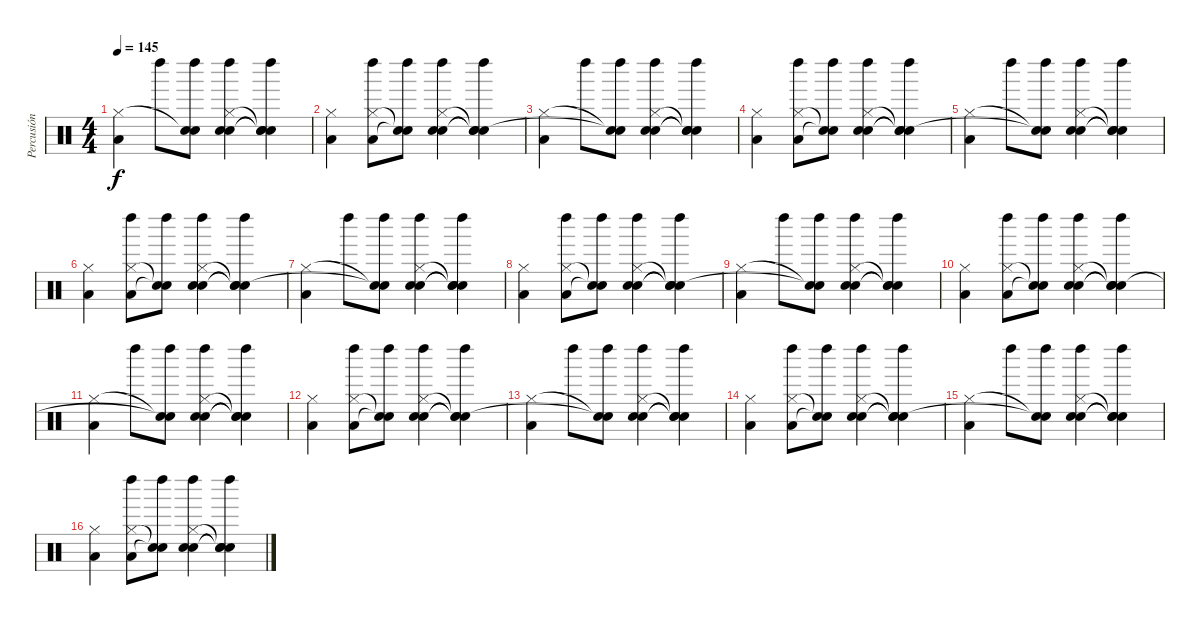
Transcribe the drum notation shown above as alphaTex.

\track ("Percusión" "Percusión") {instrument percussion}
\staff {score}
\articulation defaults
\ts (4 4)
\tempo 145
\clef neutral
\ks c
("Low Floor Tom (hit)" "Hi-Hat (closed)").4{dy f} "Left Maraca (hit)".8 ("Left Maraca (hit)" "Snare (hit)"{t} "Snare (hit)"{t}).8 ("Left Maraca (hit)" "Electric Snare (hit)" "Hi-Hat (closed)" "Snare (hit) 2").4 ("Left Maraca (hit)" "Snare (hit)"{t} "Snare (hit)"{t} "Snare (hit)"{t}).4 |
("Low Floor Tom (hit)" "Hi-Hat (closed)").4 ("Left Maraca (hit)" "Low Floor Tom (hit)" "Hi-Hat (closed)").8 ("Left Maraca (hit)" "Snare (hit)"{t} "Snare (hit)"{t}).8 ("Left Maraca (hit)" "Electric Snare (hit)" "Hi-Hat (closed)" "Snare (hit) 2").4 ("Left Maraca (hit)" "Snare (hit)"{t} "Snare (hit)"{t} "Snare (hit)"{t}).4 |
("Low Floor Tom (hit)" "Hi-Hat (closed)").4 "Left Maraca (hit)".8 ("Left Maraca (hit)" "Snare (hit)"{t} "Snare (hit)"{t}).8 ("Left Maraca (hit)" "Electric Snare (hit)" "Hi-Hat (closed)" "Snare (hit) 2").4 ("Left Maraca (hit)" "Snare (hit)"{t} "Snare (hit)"{t} "Snare (hit)"{t}).4 |
("Low Floor Tom (hit)" "Hi-Hat (closed)").4 ("Left Maraca (hit)" "Low Floor Tom (hit)" "Hi-Hat (closed)").8 ("Left Maraca (hit)" "Snare (hit)"{t} "Snare (hit)"{t}).8 ("Left Maraca (hit)" "Electric Snare (hit)" "Hi-Hat (closed)" "Snare (hit) 2").4 ("Left Maraca (hit)" "Snare (hit)"{t} "Snare (hit)"{t} "Snare (hit)"{t}).4 |
("Low Floor Tom (hit)" "Hi-Hat (closed)").4 "Left Maraca (hit)".8 ("Left Maraca (hit)" "Snare (hit)"{t} "Snare (hit)"{t}).8 ("Left Maraca (hit)" "Electric Snare (hit)" "Hi-Hat (closed)" "Snare (hit) 2").4 ("Left Maraca (hit)" "Snare (hit)"{t} "Snare (hit)"{t} "Snare (hit)"{t}).4 |
("Low Floor Tom (hit)" "Hi-Hat (closed)").4 ("Left Maraca (hit)" "Low Floor Tom (hit)" "Hi-Hat (closed)").8 ("Left Maraca (hit)" "Snare (hit)"{t} "Snare (hit)"{t}).8 ("Left Maraca (hit)" "Electric Snare (hit)" "Hi-Hat (closed)" "Snare (hit) 2").4 ("Left Maraca (hit)" "Snare (hit)"{t} "Snare (hit)"{t} "Snare (hit)"{t}).4 |
("Low Floor Tom (hit)" "Hi-Hat (closed)").4 "Left Maraca (hit)".8 ("Left Maraca (hit)" "Snare (hit)"{t} "Snare (hit)"{t}).8 ("Left Maraca (hit)" "Electric Snare (hit)" "Hi-Hat (closed)" "Snare (hit) 2").4 ("Left Maraca (hit)" "Snare (hit)"{t} "Snare (hit)"{t} "Snare (hit)"{t}).4 |
("Low Floor Tom (hit)" "Hi-Hat (closed)").4 ("Left Maraca (hit)" "Low Floor Tom (hit)" "Hi-Hat (closed)").8 ("Left Maraca (hit)" "Snare (hit)"{t} "Snare (hit)"{t}).8 ("Left Maraca (hit)" "Electric Snare (hit)" "Hi-Hat (closed)" "Snare (hit) 2").4 ("Left Maraca (hit)" "Snare (hit)"{t} "Snare (hit)"{t} "Snare (hit)"{t}).4 |
("Low Floor Tom (hit)" "Hi-Hat (closed)").4 "Left Maraca (hit)".8 ("Left Maraca (hit)" "Snare (hit)"{t} "Snare (hit)"{t}).8 ("Left Maraca (hit)" "Electric Snare (hit)" "Hi-Hat (closed)" "Snare (hit) 2").4 ("Left Maraca (hit)" "Snare (hit)"{t} "Snare (hit)"{t} "Snare (hit)"{t}).4 |
("Low Floor Tom (hit)" "Hi-Hat (closed)").4 ("Left Maraca (hit)" "Low Floor Tom (hit)" "Hi-Hat (closed)").8 ("Left Maraca (hit)" "Snare (hit)"{t} "Snare (hit)"{t}).8 ("Left Maraca (hit)" "Electric Snare (hit)" "Hi-Hat (closed)" "Snare (hit) 2").4 ("Left Maraca (hit)" "Snare (hit)"{t} "Snare (hit)"{t} "Snare (hit)"{t}).4 |
("Low Floor Tom (hit)" "Hi-Hat (closed)").4 "Left Maraca (hit)".8 ("Left Maraca (hit)" "Snare (hit)"{t} "Snare (hit)"{t}).8 ("Left Maraca (hit)" "Electric Snare (hit)" "Hi-Hat (closed)" "Snare (hit) 2").4 ("Left Maraca (hit)" "Snare (hit)"{t} "Snare (hit)"{t} "Snare (hit)"{t}).4 |
("Low Floor Tom (hit)" "Hi-Hat (closed)").4 ("Left Maraca (hit)" "Low Floor Tom (hit)" "Hi-Hat (closed)").8 ("Left Maraca (hit)" "Snare (hit)"{t} "Snare (hit)"{t}).8 ("Left Maraca (hit)" "Electric Snare (hit)" "Hi-Hat (closed)" "Snare (hit) 2").4 ("Left Maraca (hit)" "Snare (hit)"{t} "Snare (hit)"{t} "Snare (hit)"{t}).4 |
("Low Floor Tom (hit)" "Hi-Hat (closed)").4 "Left Maraca (hit)".8 ("Left Maraca (hit)" "Snare (hit)"{t} "Snare (hit)"{t}).8 ("Left Maraca (hit)" "Electric Snare (hit)" "Hi-Hat (closed)" "Snare (hit) 2").4 ("Left Maraca (hit)" "Snare (hit)"{t} "Snare (hit)"{t} "Snare (hit)"{t}).4 |
("Low Floor Tom (hit)" "Hi-Hat (closed)").4 ("Left Maraca (hit)" "Low Floor Tom (hit)" "Hi-Hat (closed)").8 ("Left Maraca (hit)" "Snare (hit)"{t} "Snare (hit)"{t}).8 ("Left Maraca (hit)" "Electric Snare (hit)" "Hi-Hat (closed)" "Snare (hit) 2").4 ("Left Maraca (hit)" "Snare (hit)"{t} "Snare (hit)"{t} "Snare (hit)"{t}).4 |
("Low Floor Tom (hit)" "Hi-Hat (closed)").4 "Left Maraca (hit)".8 ("Left Maraca (hit)" "Snare (hit)"{t} "Snare (hit)"{t}).8 ("Left Maraca (hit)" "Electric Snare (hit)" "Hi-Hat (closed)" "Snare (hit) 2").4 ("Left Maraca (hit)" "Snare (hit)"{t} "Snare (hit)"{t} "Snare (hit)"{t}).4 |
("Low Floor Tom (hit)" "Hi-Hat (closed)").4 ("Left Maraca (hit)" "Low Floor Tom (hit)" "Hi-Hat (closed)").8 ("Left Maraca (hit)" "Snare (hit)"{t} "Snare (hit)"{t}).8 ("Left Maraca (hit)" "Electric Snare (hit)" "Hi-Hat (closed)" "Snare (hit) 2").4 ("Left Maraca (hit)" "Snare (hit)"{t} "Snare (hit)"{t} "Snare (hit)"{t}).4
